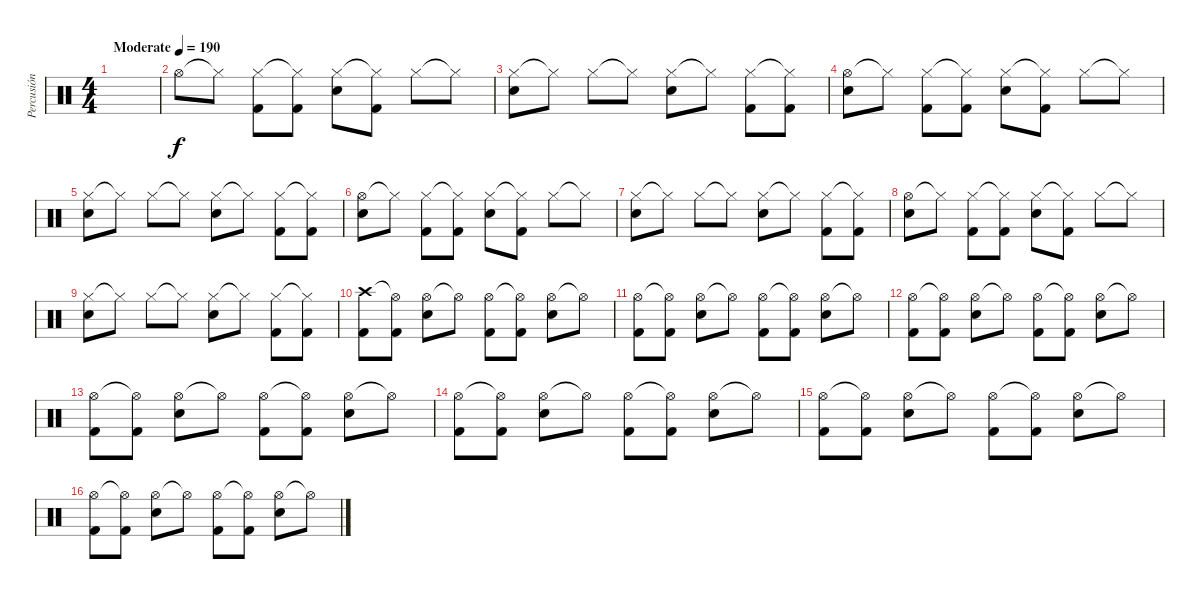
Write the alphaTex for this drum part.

\track ("Percusión" "Percusión") {instrument percussion}
\staff {score}
\articulation defaults
\ts (4 4)
\tempo (190 "Moderate")
\clef neutral
\ks c
|
"Hi-Hat (open)".8 "Hi-Hat (closed)"{t}.8 ("Hi-Hat (closed)" "Kick (hit) 2").8 ("Hi-Hat (closed)"{t} "Kick (hit) 2").8 ("Hi-Hat (closed)" "Snare (hit) 2").8 ("Hi-Hat (closed)"{t} "Kick (hit) 2").8 "Hi-Hat (closed)".8 "Hi-Hat (closed)"{t}.8 |
("Hi-Hat (closed)" "Snare (hit) 2").8 "Hi-Hat (closed)"{t}.8 "Hi-Hat (closed)".8 "Hi-Hat (closed)"{t}.8 ("Hi-Hat (closed)" "Snare (hit) 2").8 "Hi-Hat (closed)"{t}.8 ("Hi-Hat (closed)" "Kick (hit) 2").8 ("Hi-Hat (closed)"{t} "Kick (hit) 2").8 |
("Hi-Hat (open)" "Snare (hit) 2").8 "Hi-Hat (closed)"{t}.8 ("Hi-Hat (closed)" "Kick (hit) 2").8 ("Hi-Hat (closed)"{t} "Kick (hit) 2").8 ("Hi-Hat (closed)" "Snare (hit) 2").8 ("Hi-Hat (closed)"{t} "Kick (hit) 2").8 "Hi-Hat (closed)".8 "Hi-Hat (closed)"{t}.8 |
("Hi-Hat (closed)" "Snare (hit) 2").8 "Hi-Hat (closed)"{t}.8 "Hi-Hat (closed)".8 "Hi-Hat (closed)"{t}.8 ("Hi-Hat (closed)" "Snare (hit) 2").8 "Hi-Hat (closed)"{t}.8 ("Hi-Hat (closed)" "Kick (hit) 2").8 ("Hi-Hat (closed)"{t} "Kick (hit) 2").8 |
("Hi-Hat (open)" "Snare (hit) 2").8 "Hi-Hat (closed)"{t}.8 ("Hi-Hat (closed)" "Kick (hit) 2").8 ("Hi-Hat (closed)"{t} "Kick (hit) 2").8 ("Hi-Hat (closed)" "Snare (hit) 2").8 ("Hi-Hat (closed)"{t} "Kick (hit) 2").8 "Hi-Hat (closed)".8 "Hi-Hat (closed)"{t}.8 |
("Hi-Hat (closed)" "Snare (hit) 2").8 "Hi-Hat (closed)"{t}.8 "Hi-Hat (closed)".8 "Hi-Hat (closed)"{t}.8 ("Hi-Hat (closed)" "Snare (hit) 2").8 "Hi-Hat (closed)"{t}.8 ("Hi-Hat (closed)" "Kick (hit) 2").8 ("Hi-Hat (closed)"{t} "Kick (hit) 2").8 |
("Hi-Hat (open)" "Snare (hit) 2").8 "Hi-Hat (closed)"{t}.8 ("Hi-Hat (closed)" "Kick (hit) 2").8 ("Hi-Hat (closed)"{t} "Kick (hit) 2").8 ("Hi-Hat (closed)" "Snare (hit) 2").8 ("Hi-Hat (closed)"{t} "Kick (hit) 2").8 "Hi-Hat (closed)".8 "Hi-Hat (closed)"{t}.8 |
("Hi-Hat (closed)" "Snare (hit) 2").8 "Hi-Hat (closed)"{t}.8 "Hi-Hat (closed)".8 "Hi-Hat (closed)"{t}.8 ("Hi-Hat (closed)" "Snare (hit) 2").8 "Hi-Hat (closed)"{t}.8 ("Hi-Hat (closed)" "Kick (hit) 2").8 ("Hi-Hat (closed)"{t} "Kick (hit) 2").8 |
("Crash high (hit)" "Kick (hit) 2").8 ("Hi-Hat (open)"{t} "Kick (hit) 2").8 ("Hi-Hat (open)" "Snare (hit) 2").8 "Hi-Hat (open)"{t}.8 ("Hi-Hat (open)" "Kick (hit) 2").8 ("Hi-Hat (open)"{t} "Kick (hit) 2").8 ("Hi-Hat (open)" "Snare (hit) 2").8 "Hi-Hat (open)"{t}.8 |
("Hi-Hat (open)" "Kick (hit) 2").8 ("Hi-Hat (open)"{t} "Kick (hit) 2").8 ("Hi-Hat (open)" "Snare (hit) 2").8 "Hi-Hat (open)"{t}.8 ("Hi-Hat (open)" "Kick (hit) 2").8 ("Hi-Hat (open)"{t} "Kick (hit) 2").8 ("Hi-Hat (open)" "Snare (hit) 2").8 "Hi-Hat (open)"{t}.8 |
("Hi-Hat (open)" "Kick (hit) 2").8 ("Hi-Hat (open)"{t} "Kick (hit) 2").8 ("Hi-Hat (open)" "Snare (hit) 2").8 "Hi-Hat (open)"{t}.8 ("Hi-Hat (open)" "Kick (hit) 2").8 ("Hi-Hat (open)"{t} "Kick (hit) 2").8 ("Hi-Hat (open)" "Snare (hit) 2").8 "Hi-Hat (open)"{t}.8 |
("Hi-Hat (open)" "Kick (hit) 2").8 ("Hi-Hat (open)"{t} "Kick (hit) 2").8 ("Hi-Hat (open)" "Snare (hit) 2").8 "Hi-Hat (open)"{t}.8 ("Hi-Hat (open)" "Kick (hit) 2").8 ("Hi-Hat (open)"{t} "Kick (hit) 2").8 ("Hi-Hat (open)" "Snare (hit) 2").8 "Hi-Hat (open)"{t}.8 |
("Hi-Hat (open)" "Kick (hit) 2").8 ("Hi-Hat (open)"{t} "Kick (hit) 2").8 ("Hi-Hat (open)" "Snare (hit) 2").8 "Hi-Hat (open)"{t}.8 ("Hi-Hat (open)" "Kick (hit) 2").8 ("Hi-Hat (open)"{t} "Kick (hit) 2").8 ("Hi-Hat (open)" "Snare (hit) 2").8 "Hi-Hat (open)"{t}.8 |
("Hi-Hat (open)" "Kick (hit) 2").8 ("Hi-Hat (open)"{t} "Kick (hit) 2").8 ("Hi-Hat (open)" "Snare (hit) 2").8 "Hi-Hat (open)"{t}.8 ("Hi-Hat (open)" "Kick (hit) 2").8 ("Hi-Hat (open)"{t} "Kick (hit) 2").8 ("Hi-Hat (open)" "Snare (hit) 2").8 "Hi-Hat (open)"{t}.8 |
("Hi-Hat (open)" "Kick (hit) 2").8 ("Hi-Hat (open)"{t} "Kick (hit) 2").8 ("Hi-Hat (open)" "Snare (hit) 2").8 "Hi-Hat (open)"{t}.8 ("Hi-Hat (open)" "Kick (hit) 2").8 ("Hi-Hat (open)"{t} "Kick (hit) 2").8 ("Hi-Hat (open)" "Snare (hit) 2").8 "Hi-Hat (open)"{t}.8
